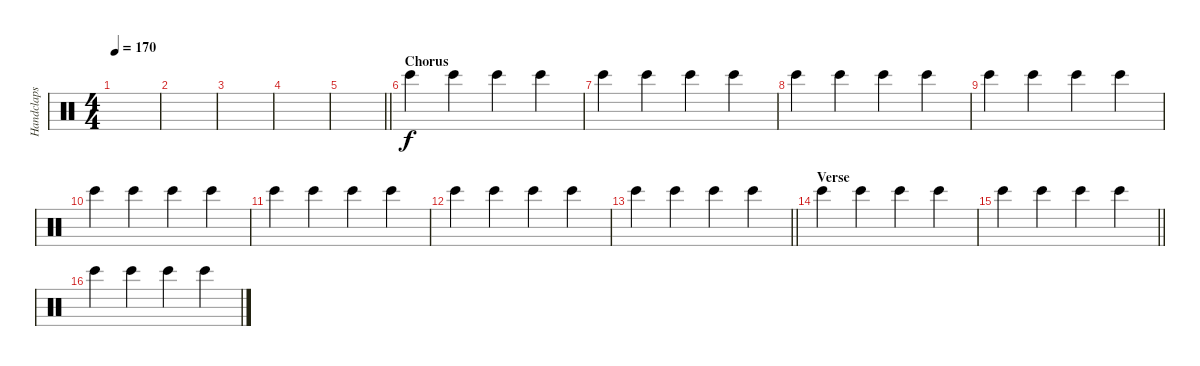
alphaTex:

\track ("Handclaps" "Handclaps") {instrument percussion}
\staff {score}
\articulation defaults
\ts (4 4)
\tempo 170
\clef neutral
\ks c
|
|
|
|
\barLineRight lightlight
|
\section ("" "Chorus")
"Bongo High (hit)".4 "Bongo High (hit)".4 "Bongo High (hit)".4 "Bongo High (hit)".4 |
"Bongo High (hit)".4 "Bongo High (hit)".4 "Bongo High (hit)".4 "Bongo High (hit)".4 |
"Bongo High (hit)".4 "Bongo High (hit)".4 "Bongo High (hit)".4 "Bongo High (hit)".4 |
"Bongo High (hit)".4 "Bongo High (hit)".4 "Bongo High (hit)".4 "Bongo High (hit)".4 |
"Bongo High (hit)".4 "Bongo High (hit)".4 "Bongo High (hit)".4 "Bongo High (hit)".4 |
"Bongo High (hit)".4 "Bongo High (hit)".4 "Bongo High (hit)".4 "Bongo High (hit)".4 |
"Bongo High (hit)".4 "Bongo High (hit)".4 "Bongo High (hit)".4 "Bongo High (hit)".4 |
\barLineRight lightlight "Bongo High (hit)".4 "Bongo High (hit)".4 "Bongo High (hit)".4 "Bongo High (hit)".4
|
\section ("" "Verse")
"Bongo High (hit)".4 "Bongo High (hit)".4 "Bongo High (hit)".4 "Bongo High (hit)".4 |
\barLineRight lightlight "Bongo High (hit)".4 "Bongo High (hit)".4 "Bongo High (hit)".4 "Bongo High (hit)".4
|
"Bongo High (hit)".4 "Bongo High (hit)".4 "Bongo High (hit)".4 "Bongo High (hit)".4
